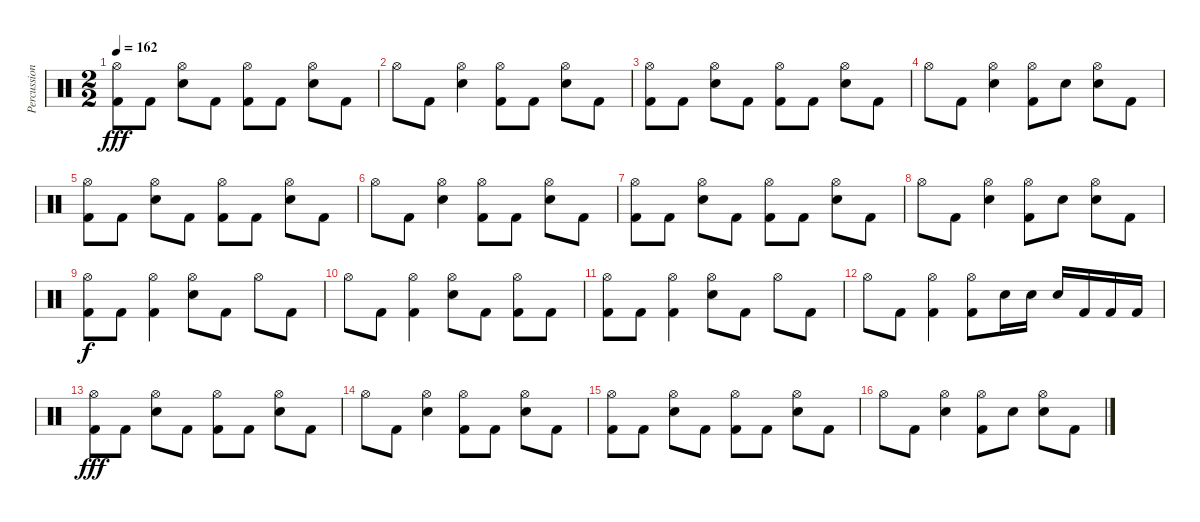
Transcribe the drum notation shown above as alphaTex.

\track ("Percussion" "Percussion") {instrument percussion}
\staff {score}
\articulation defaults
\ts (2 2)
\tempo 162
\clef neutral
\ks c
("Hi-Hat (open)" "Kick (hit) 2").8{dy fff} "Kick (hit) 2".8 ("Hi-Hat (open)" "Snare (hit) 2").8 "Kick (hit) 2".8 ("Hi-Hat (open)" "Kick (hit) 2").8 "Kick (hit) 2".8 ("Hi-Hat (open)" "Snare (hit) 2").8 "Kick (hit) 2".8 |
"Hi-Hat (open)".8 "Kick (hit) 2".8 ("Hi-Hat (open)" "Snare (hit) 2").4 ("Hi-Hat (open)" "Kick (hit) 2").8 "Kick (hit) 2".8 ("Hi-Hat (open)" "Snare (hit) 2").8 "Kick (hit) 2".8 |
("Hi-Hat (open)" "Kick (hit) 2").8 "Kick (hit) 2".8 ("Hi-Hat (open)" "Snare (hit) 2").8 "Kick (hit) 2".8 ("Hi-Hat (open)" "Kick (hit) 2").8 "Kick (hit) 2".8 ("Hi-Hat (open)" "Snare (hit) 2").8 "Kick (hit) 2".8 |
"Hi-Hat (open)".8 "Kick (hit) 2".8 ("Hi-Hat (open)" "Snare (hit) 2").4 ("Hi-Hat (open)" "Kick (hit) 2").8 "Snare (hit) 2".8 ("Hi-Hat (open)" "Snare (hit) 2").8 "Kick (hit) 2".8 |
("Hi-Hat (open)" "Kick (hit) 2").8 "Kick (hit) 2".8 ("Hi-Hat (open)" "Snare (hit) 2").8 "Kick (hit) 2".8 ("Hi-Hat (open)" "Kick (hit) 2").8 "Kick (hit) 2".8 ("Hi-Hat (open)" "Snare (hit) 2").8 "Kick (hit) 2".8 |
"Hi-Hat (open)".8 "Kick (hit) 2".8 ("Hi-Hat (open)" "Snare (hit) 2").4 ("Hi-Hat (open)" "Kick (hit) 2").8 "Kick (hit) 2".8 ("Hi-Hat (open)" "Snare (hit) 2").8 "Kick (hit) 2".8 |
("Hi-Hat (open)" "Kick (hit) 2").8 "Kick (hit) 2".8 ("Hi-Hat (open)" "Snare (hit) 2").8 "Kick (hit) 2".8 ("Hi-Hat (open)" "Kick (hit) 2").8 "Kick (hit) 2".8 ("Hi-Hat (open)" "Snare (hit) 2").8 "Kick (hit) 2".8 |
"Hi-Hat (open)".8 "Kick (hit) 2".8 ("Hi-Hat (open)" "Snare (hit) 2").4 ("Hi-Hat (open)" "Kick (hit) 2").8 "Snare (hit) 2".8 ("Hi-Hat (open)" "Snare (hit) 2").8 "Kick (hit) 2".8 |
("Hi-Hat (open)" "Kick (hit) 2").8{dy f} "Kick (hit) 2".8 ("Hi-Hat (open)" "Kick (hit) 2").4 ("Hi-Hat (open)" "Snare (hit) 2").8 "Kick (hit) 2".8 "Hi-Hat (open)".8 "Kick (hit) 2".8 |
"Hi-Hat (open)".8 "Kick (hit) 2".8 ("Hi-Hat (open)" "Kick (hit) 2").4 ("Hi-Hat (open)" "Snare (hit) 2").8 "Kick (hit) 2".8 ("Hi-Hat (open)" "Kick (hit) 2").8 "Kick (hit) 2".8 |
("Hi-Hat (open)" "Kick (hit) 2").8 "Kick (hit) 2".8 ("Hi-Hat (open)" "Kick (hit) 2").4 ("Hi-Hat (open)" "Snare (hit) 2").8 "Kick (hit) 2".8 "Hi-Hat (open)".8 "Kick (hit) 2".8 |
"Hi-Hat (open)".8 "Kick (hit) 2".8 ("Hi-Hat (open)" "Kick (hit) 2").4 ("Hi-Hat (open)" "Kick (hit) 2").8 "Snare (hit) 2".16 "Snare (hit) 2".16 "Snare (hit) 2".16 "Kick (hit) 2".16 "Kick (hit) 2".16 "Kick (hit) 2".16 |
("Hi-Hat (open)" "Kick (hit) 2").8{dy fff} "Kick (hit) 2".8 ("Hi-Hat (open)" "Snare (hit) 2").8 "Kick (hit) 2".8 ("Hi-Hat (open)" "Kick (hit) 2").8 "Kick (hit) 2".8 ("Hi-Hat (open)" "Snare (hit) 2").8 "Kick (hit) 2".8 |
"Hi-Hat (open)".8 "Kick (hit) 2".8 ("Hi-Hat (open)" "Snare (hit) 2").4 ("Hi-Hat (open)" "Kick (hit) 2").8 "Kick (hit) 2".8 ("Hi-Hat (open)" "Snare (hit) 2").8 "Kick (hit) 2".8 |
("Hi-Hat (open)" "Kick (hit) 2").8 "Kick (hit) 2".8 ("Hi-Hat (open)" "Snare (hit) 2").8 "Kick (hit) 2".8 ("Hi-Hat (open)" "Kick (hit) 2").8 "Kick (hit) 2".8 ("Hi-Hat (open)" "Snare (hit) 2").8 "Kick (hit) 2".8 |
"Hi-Hat (open)".8 "Kick (hit) 2".8 ("Hi-Hat (open)" "Snare (hit) 2").4 ("Hi-Hat (open)" "Kick (hit) 2").8 "Snare (hit) 2".8 ("Hi-Hat (open)" "Snare (hit) 2").8 "Kick (hit) 2".8
